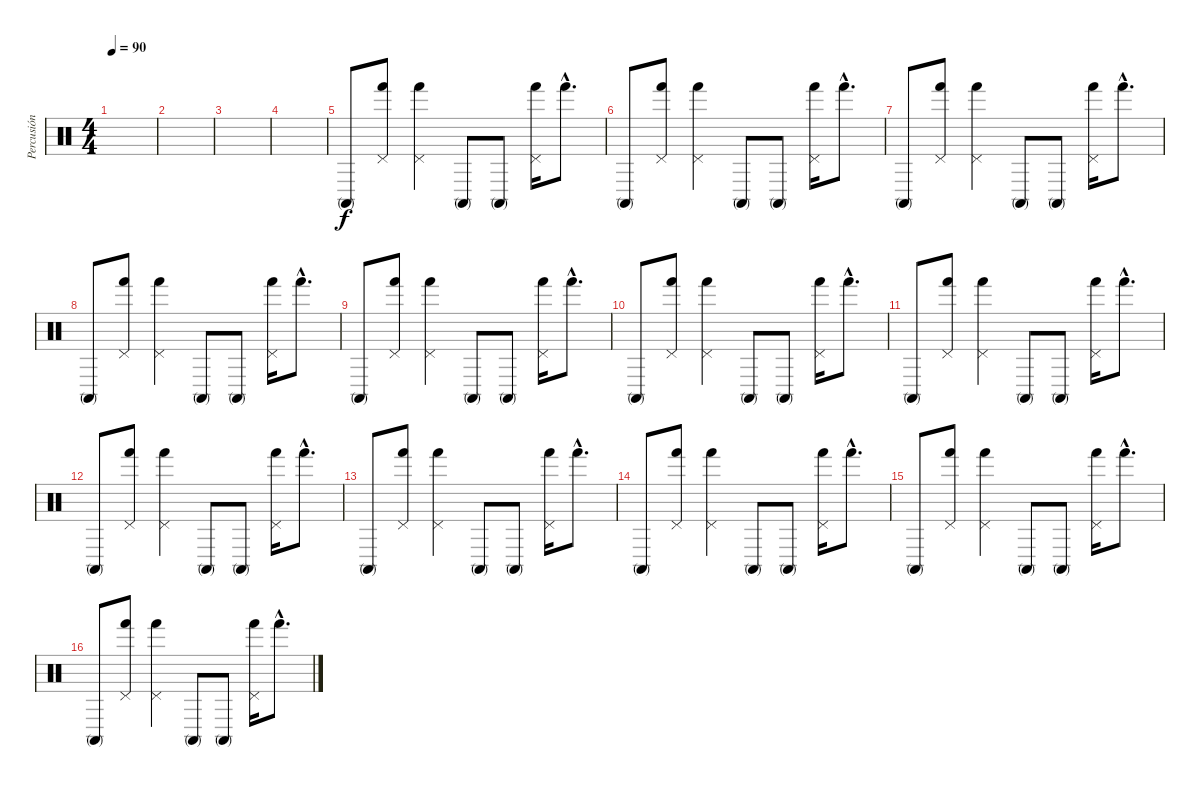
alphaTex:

\track ("Percusión" "Percusión") {instrument percussion}
\staff {score}
\articulation defaults
\ts (4 4)
\tempo 90
\clef neutral
\ks c
|
|
|
|
"Conga high (mute)".8 ("Pedal Hi-Hat (hit)" "Hand (hit)").8 ("Pedal Hi-Hat (hit)" "Hand (hit)").4 "Conga high (mute)".8 "Conga high (mute)".8 ("Pedal Hi-Hat (hit)" "Hand (hit)").16 "Hand (hit)"{hac}.8{d} |
"Conga high (mute)".8 ("Pedal Hi-Hat (hit)" "Hand (hit)").8 ("Pedal Hi-Hat (hit)" "Hand (hit)").4 "Conga high (mute)".8 "Conga high (mute)".8 ("Pedal Hi-Hat (hit)" "Hand (hit)").16 "Hand (hit)"{hac}.8{d} |
"Conga high (mute)".8 ("Pedal Hi-Hat (hit)" "Hand (hit)").8 ("Pedal Hi-Hat (hit)" "Hand (hit)").4 "Conga high (mute)".8 "Conga high (mute)".8 ("Pedal Hi-Hat (hit)" "Hand (hit)").16 "Hand (hit)"{hac}.8{d} |
"Conga high (mute)".8 ("Pedal Hi-Hat (hit)" "Hand (hit)").8 ("Pedal Hi-Hat (hit)" "Hand (hit)").4 "Conga high (mute)".8 "Conga high (mute)".8 ("Pedal Hi-Hat (hit)" "Hand (hit)").16 "Hand (hit)"{hac}.8{d} |
"Conga high (mute)".8 ("Pedal Hi-Hat (hit)" "Hand (hit)").8 ("Pedal Hi-Hat (hit)" "Hand (hit)").4 "Conga high (mute)".8 "Conga high (mute)".8 ("Pedal Hi-Hat (hit)" "Hand (hit)").16 "Hand (hit)"{hac}.8{d} |
"Conga high (mute)".8 ("Pedal Hi-Hat (hit)" "Hand (hit)").8 ("Pedal Hi-Hat (hit)" "Hand (hit)").4 "Conga high (mute)".8 "Conga high (mute)".8 ("Pedal Hi-Hat (hit)" "Hand (hit)").16 "Hand (hit)"{hac}.8{d} |
"Conga high (mute)".8 ("Pedal Hi-Hat (hit)" "Hand (hit)").8 ("Pedal Hi-Hat (hit)" "Hand (hit)").4 "Conga high (mute)".8 "Conga high (mute)".8 ("Pedal Hi-Hat (hit)" "Hand (hit)").16 "Hand (hit)"{hac}.8{d} |
"Conga high (mute)".8 ("Pedal Hi-Hat (hit)" "Hand (hit)").8 ("Pedal Hi-Hat (hit)" "Hand (hit)").4 "Conga high (mute)".8 "Conga high (mute)".8 ("Pedal Hi-Hat (hit)" "Hand (hit)").16 "Hand (hit)"{hac}.8{d} |
"Conga high (mute)".8 ("Pedal Hi-Hat (hit)" "Hand (hit)").8 ("Pedal Hi-Hat (hit)" "Hand (hit)").4 "Conga high (mute)".8 "Conga high (mute)".8 ("Pedal Hi-Hat (hit)" "Hand (hit)").16 "Hand (hit)"{hac}.8{d} |
"Conga high (mute)".8 ("Pedal Hi-Hat (hit)" "Hand (hit)").8 ("Pedal Hi-Hat (hit)" "Hand (hit)").4 "Conga high (mute)".8 "Conga high (mute)".8 ("Pedal Hi-Hat (hit)" "Hand (hit)").16 "Hand (hit)"{hac}.8{d} |
"Conga high (mute)".8 ("Pedal Hi-Hat (hit)" "Hand (hit)").8 ("Pedal Hi-Hat (hit)" "Hand (hit)").4 "Conga high (mute)".8 "Conga high (mute)".8 ("Pedal Hi-Hat (hit)" "Hand (hit)").16 "Hand (hit)"{hac}.8{d} |
"Conga high (mute)".8 ("Pedal Hi-Hat (hit)" "Hand (hit)").8 ("Pedal Hi-Hat (hit)" "Hand (hit)").4 "Conga high (mute)".8 "Conga high (mute)".8 ("Pedal Hi-Hat (hit)" "Hand (hit)").16 "Hand (hit)"{hac}.8{d}
